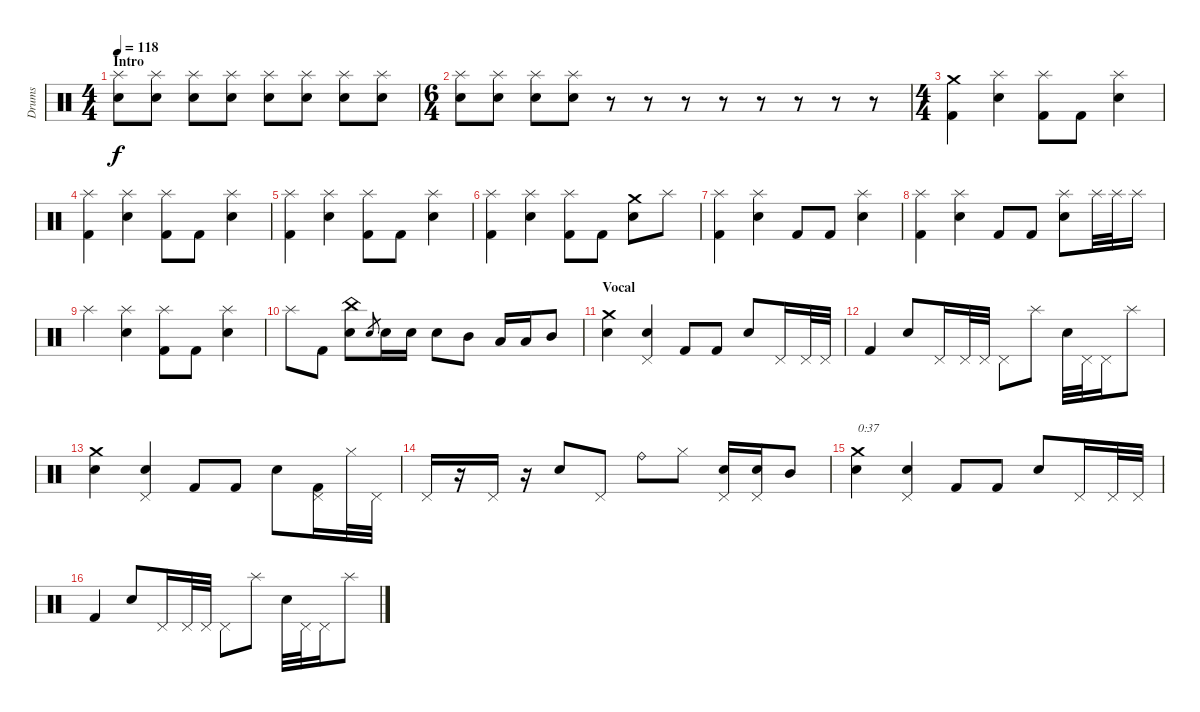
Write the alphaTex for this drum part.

\track ("Drums" "Drums") {instrument percussion}
\staff {score}
\articulation defaults
\ts (4 4)
\section ("" "Intro")
\tempo 118
\clef neutral
\ks c
("Splash (hit)" "Electric Snare (hit)").8{dy f volume 1} ("Splash (hit)" "Electric Snare (hit)").8{volume 13} ("Splash (hit)" "Electric Snare (hit)").8 ("Splash (hit)" "Electric Snare (hit)").8 ("Splash (hit)" "Electric Snare (hit)").8 ("Splash (hit)" "Electric Snare (hit)").8 ("Splash (hit)" "Electric Snare (hit)").8 ("Splash (hit)" "Electric Snare (hit)").8 |
\ts (6 4)
("Splash (hit)" "Electric Snare (hit)").8 ("Splash (hit)" "Electric Snare (hit)").8 ("Splash (hit)" "Electric Snare (hit)").8 ("Splash (hit)" "Electric Snare (hit)").8 r.8 r.8 r.8 r.8 r.8 r.8 r.8 r.8 |
\ts (4 4)
\section ("" "")
("Crash medium (hit)" "Kick (hit) 2").4 ("Splash (hit)" "Electric Snare (hit)").4 ("Splash (hit)" "Kick (hit) 2").8 "Kick (hit) 2".8 ("Splash (hit)" "Electric Snare (hit)").4 |
("Splash (hit)" "Kick (hit) 2").4 ("Splash (hit)" "Electric Snare (hit)").4 ("Splash (hit)" "Kick (hit) 2").8 "Kick (hit) 2".8 ("Splash (hit)" "Electric Snare (hit)").4 |
("Splash (hit)" "Kick (hit) 2").4 ("Splash (hit)" "Electric Snare (hit)").4 ("Splash (hit)" "Kick (hit) 2").8 "Kick (hit) 2".8 ("Splash (hit)" "Electric Snare (hit)").4 |
("Splash (hit)" "Kick (hit) 2").4 ("Splash (hit)" "Electric Snare (hit)").4 ("Splash (hit)" "Kick (hit) 2").8 "Kick (hit) 2".8 ("Crash medium (hit)" "Electric Snare (hit)").8 "Splash (hit)".8 |
("Splash (hit)" "Kick (hit) 2").4 ("Splash (hit)" "Electric Snare (hit)").4 "Kick (hit) 2".8 "Kick (hit) 2".8 ("Splash (hit)" "Electric Snare (hit)").4 |
("Splash (hit)" "Kick (hit) 2").4 ("Splash (hit)" "Electric Snare (hit)").4 "Kick (hit) 2".8 "Kick (hit) 2".8 ("Splash (hit)" "Electric Snare (hit)").8 "Splash (hit)".32 "Splash (hit)".32 "Splash (hit)".16 |
"Splash (hit)".4 ("Splash (hit)" "Electric Snare (hit)").4 ("Splash (hit)" "Kick (hit) 2").8 "Kick (hit) 2".8 ("Splash (hit)" "Electric Snare (hit)").4 |
"Splash (hit)".8 "Kick (hit) 2".8 ("China (hit)" "Electric Snare (hit)").8 "Electric Snare (hit)".8{gr} "Electric Snare (hit)".16 "Electric Snare (hit)".16 "Electric Snare (hit)".8 "Mid Tom (hit)".8 "Low Tom (hit)".16 "Low Tom (hit)".16 "Mid Tom (hit)".8 |
\section ("" "Vocal")
("Crash medium (hit)" "Snare (hit) 2").4 ("Pedal Hi-Hat (hit)" "Electric Snare (hit)").4 "Kick (hit) 2".8 "Kick (hit) 2".8 "Electric Snare (hit)".8 "Pedal Hi-Hat (hit)".16 "Pedal Hi-Hat (hit)".32 "Pedal Hi-Hat (hit)".32 |
"Kick (hit) 2".4 "Electric Snare (hit)".8 "Pedal Hi-Hat (hit)".16 "Pedal Hi-Hat (hit)".32 "Pedal Hi-Hat (hit)".32 "Pedal Hi-Hat (hit)".8 "Splash (hit)".8 "Electric Snare (hit)".32 "Pedal Hi-Hat (hit)".32 "Pedal Hi-Hat (hit)".16 "Splash (hit)".8 |
("Crash medium (hit)" "Snare (hit) 2").4 ("Pedal Hi-Hat (hit)" "Electric Snare (hit)").4 "Kick (hit) 2".8 "Kick (hit) 2".8 "Electric Snare (hit)".8 ("Pedal Hi-Hat (hit)" "Kick (hit) 2").16 "Hi-Hat (closed)".32 "Pedal Hi-Hat (hit)".32 |
"Pedal Hi-Hat (hit)".16 r.16 "Pedal Hi-Hat (hit)".16 r.16 "Electric Snare (hit)".8 "Pedal Hi-Hat (hit)".8 "Ride (bell)".8 "Hi-Hat (closed)".8 ("Pedal Hi-Hat (hit)" "Electric Snare (hit)").16 ("Pedal Hi-Hat (hit)" "Electric Snare (hit)").16 "Mid Tom (hit)".8 |
("Crash medium (hit)" "Snare (hit) 2").4{txt "0:37"} ("Pedal Hi-Hat (hit)" "Electric Snare (hit)").4 "Kick (hit) 2".8 "Kick (hit) 2".8 "Electric Snare (hit)".8 "Pedal Hi-Hat (hit)".16 "Pedal Hi-Hat (hit)".32 "Pedal Hi-Hat (hit)".32 |
"Kick (hit) 2".4 "Electric Snare (hit)".8 "Pedal Hi-Hat (hit)".16 "Pedal Hi-Hat (hit)".32 "Pedal Hi-Hat (hit)".32 "Pedal Hi-Hat (hit)".8 "Splash (hit)".8 "Electric Snare (hit)".32 "Pedal Hi-Hat (hit)".32 "Pedal Hi-Hat (hit)".16 "Splash (hit)".8
